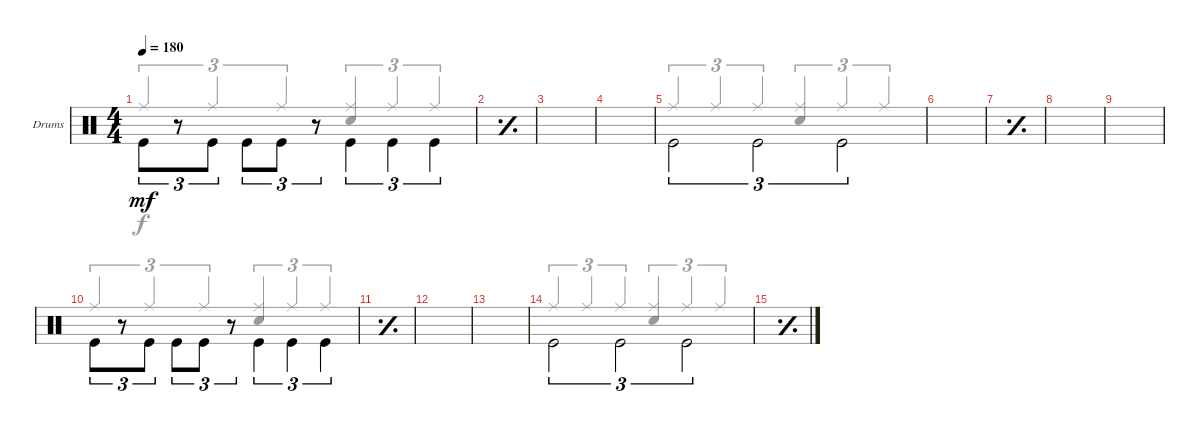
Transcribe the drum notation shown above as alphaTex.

\defaultSystemsLayout 4
\bracketExtendMode groupsimilarinstruments
\multiBarRest
\firstSystemTrackNameOrientation horizontal
\otherSystemsTrackNameOrientation horizontal
\track ("Drumkit" "Drums") {instrument percussion}
\staff {score}
\articulation defaults
\voice
\ts (4 4)
\tempo 180
\clef neutral
\ks c "Kick (hit)".8{tu (3 2) dy mf}
r.8{tu (3 2) beam invert} "Kick (hit)".8{tu (3 2) beam invert} "Kick (hit)".8{tu (3 2)} "Kick (hit)".8{tu (3 2) beam invert} r.8{tu (3 2) beam invert} "Kick (hit)".4{tu (3 2) beam invert} "Kick (hit)".4{tu (3 2) beam invert} "Kick (hit)".4{tu (3 2) beam invert} |
\simile simple
|
|
|
\simile none "Kick (hit)".2{tu (3 2) beam invert} "Kick (hit)".2{tu (3 2) beam invert} "Kick (hit)".2{tu (3 2) beam invert}
|
|
\simile simple
|
|
|
\simile none "Kick (hit)".8{tu (3 2)}
r.8{tu (3 2) beam invert} "Kick (hit)".8{tu (3 2) beam invert} "Kick (hit)".8{tu (3 2)} "Kick (hit)".8{tu (3 2) beam invert} r.8{tu (3 2) beam invert} "Kick (hit)".4{tu (3 2) beam invert} "Kick (hit)".4{tu (3 2) beam invert} "Kick (hit)".4{tu (3 2) beam invert} |
\simile simple
|
|
|
\simile none "Kick (hit)".2{tu (3 2) beam invert} "Kick (hit)".2{tu (3 2) beam invert} "Kick (hit)".2{tu (3 2) beam invert}
|
\simile simple
|
\voice
\clef neutral
\ottava regular
\simile none
\ks c "Ride (middle)".4{tu (3 2) dy f beam invert} "Ride (middle)".4{tu (3 2) beam invert} "Ride (middle)".4{tu (3 2) beam invert}
("Snare (hit) 2" "Ride (middle)").4{tu (3 2) beam invert} "Ride (middle)".4{tu (3 2) beam invert} "Ride (middle)".4{tu (3 2) beam invert} |
\simile simple
|
|
|
\simile none "Ride (middle)".4{tu (3 2) beam invert} "Ride (middle)".4{tu (3 2) beam invert} "Ride (middle)".4{tu (3 2) beam invert}
("Ride (middle)" "Snare (hit) 2").4{tu (3 2) beam invert} "Ride (middle)".4{tu (3 2) beam invert} "Ride (middle)".4{tu (3 2) beam invert} |
|
\simile simple
|
|
|
\simile none "Ride (middle)".4{tu (3 2) beam invert} "Ride (middle)".4{tu (3 2) beam invert} "Ride (middle)".4{tu (3 2) beam invert}
("Snare (hit) 2" "Ride (middle)").4{tu (3 2) beam invert} "Ride (middle)".4{tu (3 2) beam invert} "Ride (middle)".4{tu (3 2) beam invert} |
\simile simple
|
|
|
\simile none "Ride (middle)".4{tu (3 2) beam invert} "Ride (middle)".4{tu (3 2) beam invert} "Ride (middle)".4{tu (3 2) beam invert}
("Ride (middle)" "Snare (hit) 2").4{tu (3 2) beam invert} "Ride (middle)".4{tu (3 2) beam invert} "Ride (middle)".4{tu (3 2) beam invert} |
\simile simple
|
